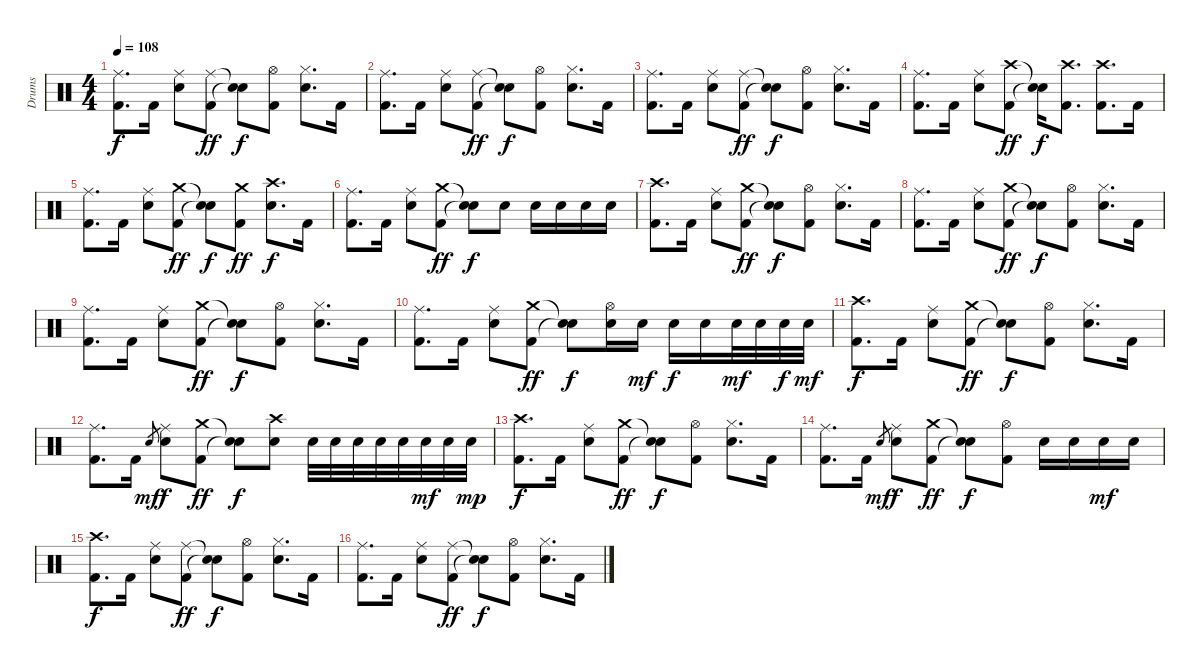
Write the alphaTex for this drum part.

\track ("Drums" "Drums") {instrument percussion}
\staff {score}
\articulation defaults
\ts (4 4)
\tempo 108
\clef neutral
\ks c
("Ride (middle)" "Kick (hit) 2").8{d dy f} "Kick (hit) 2".16 ("Ride (middle)" "Electric Snare (hit)").8 ("Ride (middle)" "Kick (hit) 2").8{dy ff} ("Snare (hit)"{t} "Snare (hit)"{t}).8{dy f} ("Hi-Hat (open)" "Kick (hit) 2").8 ("Hi-Hat (closed)" "Electric Snare (hit)").8{d} "Kick (hit) 2".16 |
("Ride (middle)" "Kick (hit) 2").8{d} "Kick (hit) 2".16 ("Ride (middle)" "Electric Snare (hit)").8 ("Ride (middle)" "Kick (hit) 2").8{dy ff} ("Snare (hit)"{t} "Snare (hit)"{t}).8{dy f} ("Hi-Hat (open)" "Kick (hit) 2").8 ("Hi-Hat (closed)" "Electric Snare (hit)").8{d} "Kick (hit) 2".16 |
("Ride (middle)" "Kick (hit) 2").8{d} "Kick (hit) 2".16 ("Ride (middle)" "Electric Snare (hit)").8 ("Ride (middle)" "Kick (hit) 2").8{dy ff} ("Snare (hit)"{t} "Snare (hit)"{t}).8{dy f} ("Hi-Hat (open)" "Kick (hit) 2").8 ("Hi-Hat (closed)" "Electric Snare (hit)").8{d} "Kick (hit) 2".16 |
("Ride (middle)" "Kick (hit) 2").8{d} "Kick (hit) 2".16 ("Ride (middle)" "Electric Snare (hit)").8 ("Crash high (hit)" "Kick (hit) 2").8{dy ff} ("Snare (hit)"{t} "Snare (hit)"{t}).16{dy f} ("Crash high (hit)" "Kick (hit) 2").8{d} ("Crash high (hit)" "Kick (hit) 2").8{d} "Kick (hit) 2".16 |
("Ride (middle)" "Kick (hit) 2").8{d} "Kick (hit) 2".16 ("Ride (middle)" "Electric Snare (hit)").8 ("Crash medium (hit)" "Kick (hit) 2").8{dy ff} ("Snare (hit)"{t} "Snare (hit)"{t}).8{dy f} ("Crash medium (hit)" "Kick (hit) 2").8{dy ff} ("Crash high (hit)" "Electric Snare (hit)").8{d dy f} "Kick (hit) 2".16 |
("Ride (middle)" "Kick (hit) 2").8{d} "Kick (hit) 2".16 ("Ride (middle)" "Electric Snare (hit)").8 ("Crash medium (hit)" "Kick (hit) 2").8{dy ff} ("Snare (hit)"{t} "Snare (hit)"{t}).8{dy f} "Electric Snare (hit)".8 "Electric Snare (hit)".16 "Electric Snare (hit)".16 "Electric Snare (hit)".16 "Electric Snare (hit)".16 |
("Crash high (hit)" "Kick (hit) 2").8{d} "Kick (hit) 2".16 ("Ride (middle)" "Electric Snare (hit)").8 ("Crash medium (hit)" "Kick (hit) 2").8{dy ff} ("Snare (hit)"{t} "Snare (hit)"{t}).8{dy f} ("Hi-Hat (open)" "Kick (hit) 2").8 ("Hi-Hat (closed)" "Electric Snare (hit)").8{d} "Kick (hit) 2".16 |
("Ride (middle)" "Kick (hit) 2").8{d} "Kick (hit) 2".16 ("Ride (middle)" "Electric Snare (hit)").8 ("Crash medium (hit)" "Kick (hit) 2").8{dy ff} ("Snare (hit)"{t} "Snare (hit)"{t}).8{dy f} ("Hi-Hat (open)" "Kick (hit) 2").8 ("Hi-Hat (closed)" "Electric Snare (hit)").8{d} "Kick (hit) 2".16 |
("Ride (middle)" "Kick (hit) 2").8{d} "Kick (hit) 2".16 ("Ride (middle)" "Electric Snare (hit)").8 ("Crash medium (hit)" "Kick (hit) 2").8{dy ff} ("Snare (hit)"{t} "Snare (hit)"{t}).8{dy f} ("Hi-Hat (open)" "Kick (hit) 2").8 ("Hi-Hat (closed)" "Electric Snare (hit)").8{d} "Kick (hit) 2".16 |
("Ride (middle)" "Kick (hit) 2").8{d} "Kick (hit) 2".16 ("Ride (middle)" "Electric Snare (hit)").8 ("Crash medium (hit)" "Kick (hit) 2").8{dy ff} ("Snare (hit)"{t} "Snare (hit)"{t}).8{dy f} ("Hi-Hat (open)" "Electric Snare (hit)").16 "Electric Snare (hit)".16{dy mf} "Electric Snare (hit)".16{dy f} "Electric Snare (hit)".16 "Electric Snare (hit)".32{dy mf} "Electric Snare (hit)".32 "Electric Snare (hit)".32{dy f} "Electric Snare (hit)".32{dy mf} |
("Crash high (hit)" "Kick (hit) 2").8{d dy f} "Kick (hit) 2".16 ("Ride (middle)" "Electric Snare (hit)").8 ("Crash medium (hit)" "Kick (hit) 2").8{dy ff} ("Snare (hit)"{t} "Snare (hit)"{t}).8{dy f} ("Hi-Hat (open)" "Kick (hit) 2").8 ("Hi-Hat (closed)" "Electric Snare (hit)").8{d} "Kick (hit) 2".16 |
("Ride (middle)" "Kick (hit) 2").8{d} "Kick (hit) 2".16 "Electric Snare (hit)".8{gr dy mf} ("Ride (middle)" "Electric Snare (hit)").8{dy f} ("Crash medium (hit)" "Kick (hit) 2").8{dy ff} ("Snare (hit)"{t} "Snare (hit)"{t}).8{dy f} ("Crash high (hit)" "Electric Snare (hit)").8 "Electric Snare (hit)".32 "Electric Snare (hit)".32 "Electric Snare (hit)".32 "Electric Snare (hit)".32 "Electric Snare (hit)".32 "Electric Snare (hit)".32{dy mf} "Electric Snare (hit)".32 "Electric Snare (hit)".32{dy mp} |
("Crash high (hit)" "Kick (hit) 2").8{d dy f} "Kick (hit) 2".16 ("Ride (middle)" "Electric Snare (hit)").8 ("Crash medium (hit)" "Kick (hit) 2").8{dy ff} ("Snare (hit)"{t} "Snare (hit)"{t}).8{dy f} ("Hi-Hat (open)" "Kick (hit) 2").8 ("Hi-Hat (closed)" "Electric Snare (hit)").8{d} "Kick (hit) 2".16 |
("Ride (middle)" "Kick (hit) 2").8{d} "Kick (hit) 2".16 "Electric Snare (hit)".8{gr dy mf} ("Ride (middle)" "Electric Snare (hit)").8{dy f} ("Crash medium (hit)" "Kick (hit) 2").8{dy ff} ("Snare (hit)"{t} "Snare (hit)"{t}).8{dy f} ("Hi-Hat (open)" "Kick (hit) 2").8 "Electric Snare (hit)".16 "Electric Snare (hit)".16 "Electric Snare (hit)".16{dy mf} "Electric Snare (hit)".16 |
("Crash high (hit)" "Kick (hit) 2").8{d dy f} "Kick (hit) 2".16 ("Ride (middle)" "Electric Snare (hit)").8 ("Ride (middle)" "Kick (hit) 2").8{dy ff} ("Snare (hit)"{t} "Snare (hit)"{t}).8{dy f} ("Hi-Hat (open)" "Kick (hit) 2").8 ("Hi-Hat (closed)" "Electric Snare (hit)").8{d} "Kick (hit) 2".16 |
("Ride (middle)" "Kick (hit) 2").8{d} "Kick (hit) 2".16 ("Ride (middle)" "Electric Snare (hit)").8 ("Ride (middle)" "Kick (hit) 2").8{dy ff} ("Snare (hit)"{t} "Snare (hit)"{t}).8{dy f} ("Hi-Hat (open)" "Kick (hit) 2").8 ("Hi-Hat (closed)" "Electric Snare (hit)").8{d} "Kick (hit) 2".16
